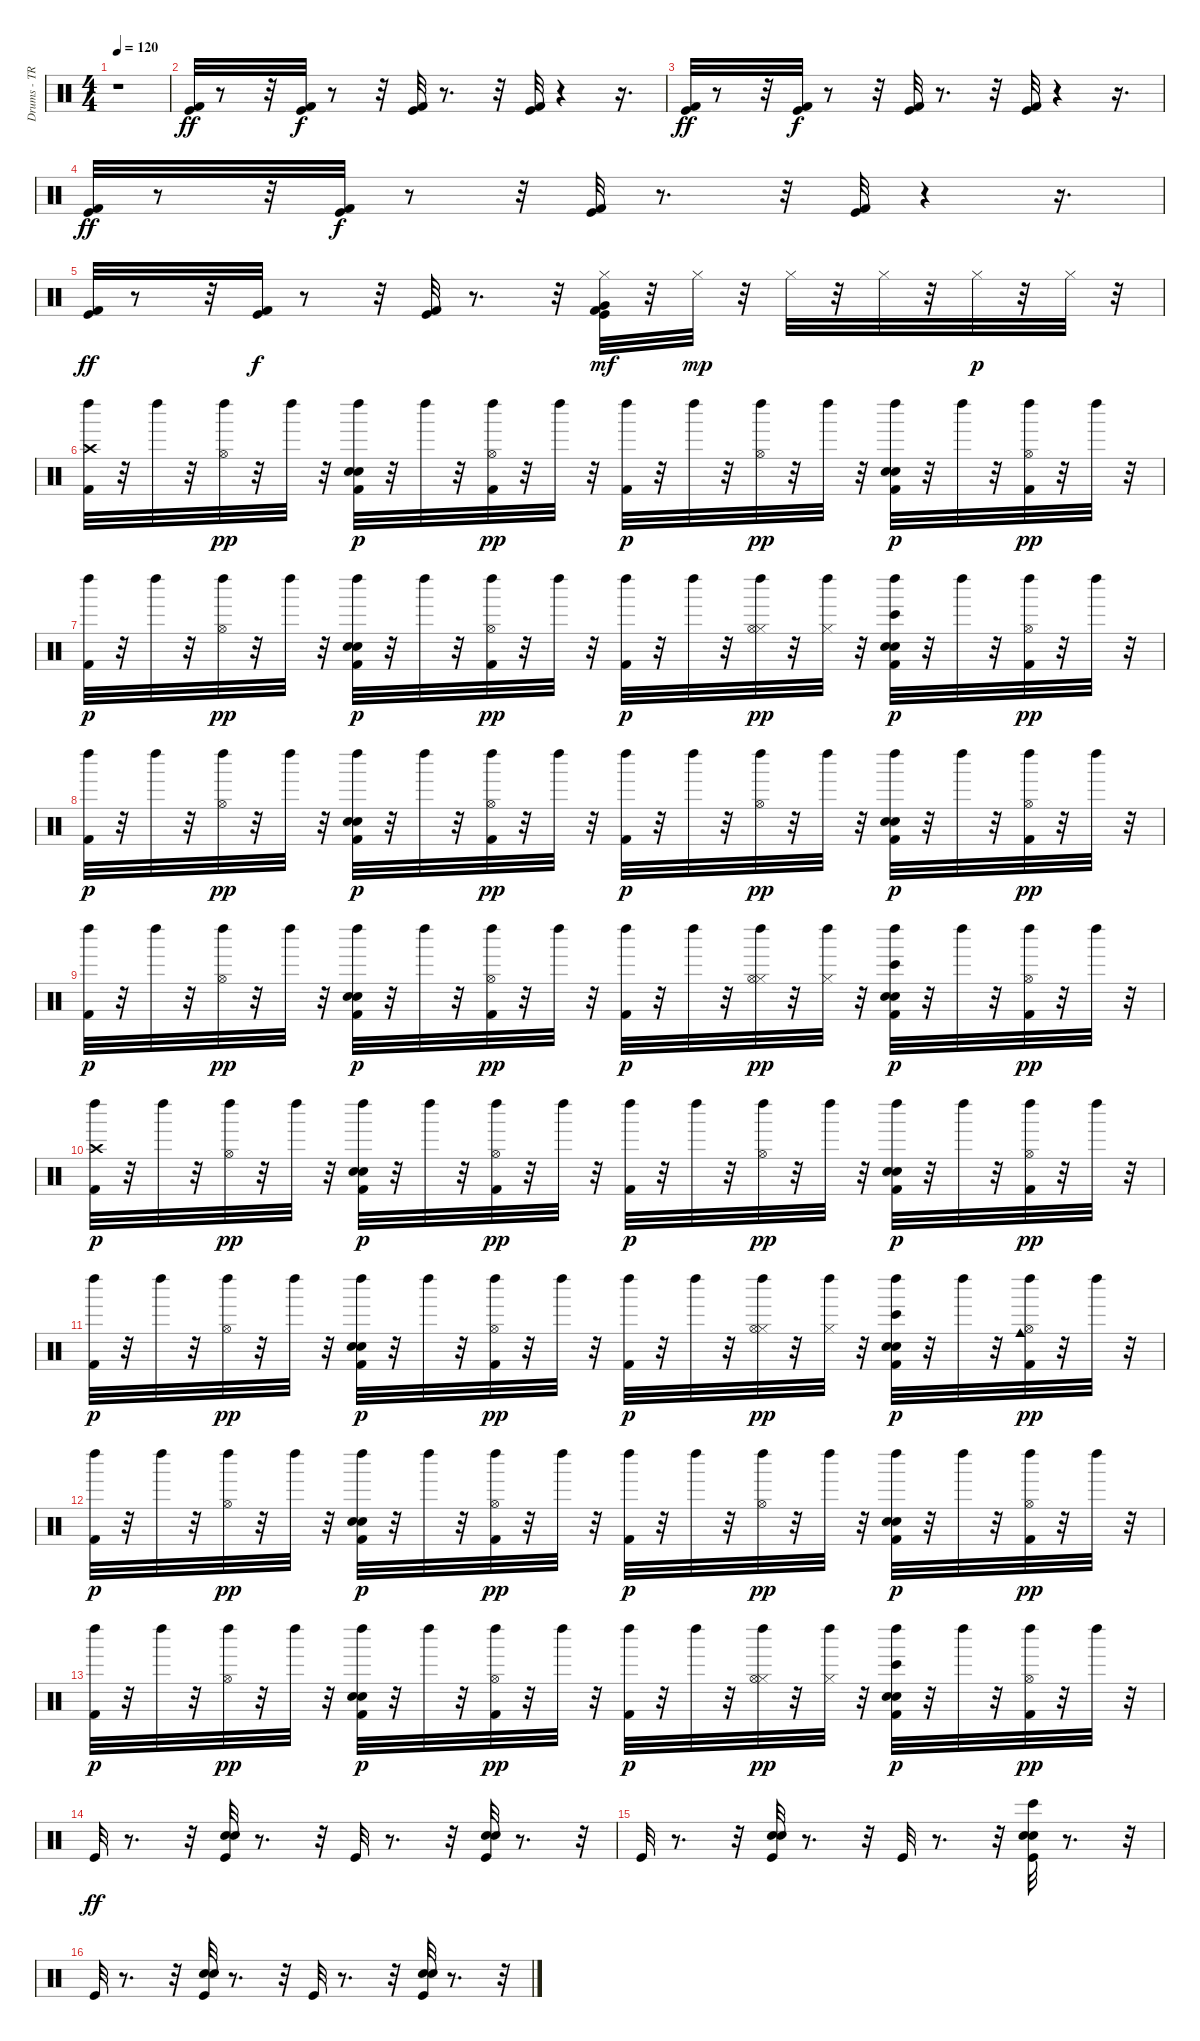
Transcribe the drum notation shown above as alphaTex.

\track ("Drums - TR" "Drums - TR") {instrument percussion}
\staff {score}
\articulation defaults
\ts (4 4)
\tempo 120
\clef neutral
\ks c
r.1{dy f} |
("Kick (hit)" "Kick (hit) 2").32{dy ff} r.8 r.32 ("Kick (hit)" "Kick (hit) 2").32{dy f} r.8 r.32 ("Kick (hit)" "Kick (hit) 2").32 r.8{d} r.32 ("Kick (hit)" "Kick (hit) 2").32 r.4 r.16{d} |
("Kick (hit)" "Kick (hit) 2").32{dy ff} r.8 r.32 ("Kick (hit)" "Kick (hit) 2").32{dy f} r.8 r.32 ("Kick (hit)" "Kick (hit) 2").32 r.8{d} r.32 ("Kick (hit)" "Kick (hit) 2").32 r.4 r.16{d} |
("Kick (hit)" "Kick (hit) 2").32{dy ff} r.8 r.32 ("Kick (hit)" "Kick (hit) 2").32{dy f} r.8 r.32 ("Kick (hit)" "Kick (hit) 2").32 r.8{d} r.32 ("Kick (hit)" "Kick (hit) 2").32 r.4 r.16{d} |
("Kick (hit)" "Kick (hit) 2").32{dy ff} r.8 r.32 ("Kick (hit)" "Kick (hit) 2").32{dy f} r.8 r.32 ("Kick (hit)" "Kick (hit) 2").32 r.8{d} r.32 ("Kick (hit)" "Kick (hit) 2" "Hi-Hat (closed)" "Very Low Tom (hit)").32{dy mf} r.32 "Hi-Hat (closed)".32{dy mp} r.32 "Hi-Hat (closed)".32 r.32 "Hi-Hat (closed)".32 r.32 "Hi-Hat (closed)".32{dy p} r.32 "Hi-Hat (closed)".32 r.32 |
("Kick (hit) 2" "Crash high (hit)" "Left Maraca (hit)").32 r.32 "Left Maraca (hit)".32 r.32 ("Hi-Hat (open)" "Left Maraca (hit)").32{dy pp} r.32 "Left Maraca (hit)".32 r.32 ("Kick (hit) 2" "Snare (hit) 2" "Hand Clap (hit)" "Left Maraca (hit)").32{dy p} r.32 "Left Maraca (hit)".32 r.32 ("Kick (hit) 2" "Hi-Hat (open)" "Left Maraca (hit)").32{dy pp} r.32 "Left Maraca (hit)".32 r.32 ("Kick (hit) 2" "Left Maraca (hit)").32{dy p} r.32 "Left Maraca (hit)".32 r.32 ("Hi-Hat (open)" "Left Maraca (hit)").32{dy pp} r.32 "Left Maraca (hit)".32 r.32 ("Kick (hit) 2" "Snare (hit) 2" "Hand Clap (hit)" "Left Maraca (hit)").32{dy p} r.32 "Left Maraca (hit)".32 r.32 ("Kick (hit) 2" "Hi-Hat (open)" "Left Maraca (hit)").32{dy pp} r.32 "Left Maraca (hit)".32 r.32 |
("Kick (hit) 2" "Left Maraca (hit)").32{dy p} r.32 "Left Maraca (hit)".32 r.32 ("Hi-Hat (open)" "Left Maraca (hit)").32{dy pp} r.32 "Left Maraca (hit)".32 r.32 ("Kick (hit) 2" "Snare (hit) 2" "Hand Clap (hit)" "Left Maraca (hit)").32{dy p} r.32 "Left Maraca (hit)".32 r.32 ("Kick (hit) 2" "Hi-Hat (open)" "Left Maraca (hit)").32{dy pp} r.32 "Left Maraca (hit)".32 r.32 ("Kick (hit) 2" "Left Maraca (hit)").32{dy p} r.32 "Left Maraca (hit)".32 r.32 ("Hi-Hat (closed)" "Hi-Hat (open)" "Left Maraca (hit)").32{dy pp} r.32 ("Hi-Hat (closed)" "Left Maraca (hit)").32 r.32 ("Kick (hit) 2" "Snare (hit) 2" "Hand Clap (hit)" "Left Maraca (hit)" "Bongo High (hit)").32{dy p} r.32 "Left Maraca (hit)".32 r.32 ("Kick (hit) 2" "Hi-Hat (open)" "Left Maraca (hit)").32{dy pp} r.32 "Left Maraca (hit)".32 r.32 |
("Kick (hit) 2" "Left Maraca (hit)").32{dy p} r.32 "Left Maraca (hit)".32 r.32 ("Hi-Hat (open)" "Left Maraca (hit)").32{dy pp} r.32 "Left Maraca (hit)".32 r.32 ("Kick (hit) 2" "Snare (hit) 2" "Hand Clap (hit)" "Left Maraca (hit)").32{dy p} r.32 "Left Maraca (hit)".32 r.32 ("Kick (hit) 2" "Hi-Hat (open)" "Left Maraca (hit)").32{dy pp} r.32 "Left Maraca (hit)".32 r.32 ("Kick (hit) 2" "Left Maraca (hit)").32{dy p} r.32 "Left Maraca (hit)".32 r.32 ("Hi-Hat (open)" "Left Maraca (hit)").32{dy pp} r.32 "Left Maraca (hit)".32 r.32 ("Kick (hit) 2" "Snare (hit) 2" "Hand Clap (hit)" "Left Maraca (hit)").32{dy p} r.32 "Left Maraca (hit)".32 r.32 ("Kick (hit) 2" "Hi-Hat (open)" "Left Maraca (hit)").32{dy pp} r.32 "Left Maraca (hit)".32 r.32 |
("Kick (hit) 2" "Left Maraca (hit)").32{dy p} r.32 "Left Maraca (hit)".32 r.32 ("Hi-Hat (open)" "Left Maraca (hit)").32{dy pp} r.32 "Left Maraca (hit)".32 r.32 ("Kick (hit) 2" "Snare (hit) 2" "Hand Clap (hit)" "Left Maraca (hit)").32{dy p} r.32 "Left Maraca (hit)".32 r.32 ("Kick (hit) 2" "Hi-Hat (open)" "Left Maraca (hit)").32{dy pp} r.32 "Left Maraca (hit)".32 r.32 ("Kick (hit) 2" "Left Maraca (hit)").32{dy p} r.32 "Left Maraca (hit)".32 r.32 ("Hi-Hat (closed)" "Hi-Hat (open)" "Left Maraca (hit)").32{dy pp} r.32 ("Hi-Hat (closed)" "Left Maraca (hit)").32 r.32 ("Kick (hit) 2" "Snare (hit) 2" "Hand Clap (hit)" "Left Maraca (hit)" "Bongo High (hit)").32{dy p} r.32 "Left Maraca (hit)".32 r.32 ("Kick (hit) 2" "Hi-Hat (open)" "Left Maraca (hit)").32{dy pp} r.32 "Left Maraca (hit)".32 r.32 |
("Kick (hit) 2" "Crash high (hit)" "Left Maraca (hit)").32{dy p} r.32 "Left Maraca (hit)".32 r.32 ("Hi-Hat (open)" "Left Maraca (hit)").32{dy pp} r.32 "Left Maraca (hit)".32 r.32 ("Kick (hit) 2" "Snare (hit) 2" "Hand Clap (hit)" "Left Maraca (hit)").32{dy p} r.32 "Left Maraca (hit)".32 r.32 ("Kick (hit) 2" "Hi-Hat (open)" "Left Maraca (hit)").32{dy pp} r.32 "Left Maraca (hit)".32 r.32 ("Kick (hit) 2" "Left Maraca (hit)").32{dy p} r.32 "Left Maraca (hit)".32 r.32 ("Hi-Hat (open)" "Left Maraca (hit)").32{dy pp} r.32 "Left Maraca (hit)".32 r.32 ("Kick (hit) 2" "Snare (hit) 2" "Hand Clap (hit)" "Left Maraca (hit)").32{dy p} r.32 "Left Maraca (hit)".32 r.32 ("Kick (hit) 2" "Hi-Hat (open)" "Left Maraca (hit)").32{dy pp} r.32 "Left Maraca (hit)".32 r.32 |
("Kick (hit) 2" "Left Maraca (hit)").32{dy p} r.32 "Left Maraca (hit)".32 r.32 ("Hi-Hat (open)" "Left Maraca (hit)").32{dy pp} r.32 "Left Maraca (hit)".32 r.32 ("Kick (hit) 2" "Snare (hit) 2" "Hand Clap (hit)" "Left Maraca (hit)").32{dy p} r.32 "Left Maraca (hit)".32 r.32 ("Kick (hit) 2" "Hi-Hat (open)" "Left Maraca (hit)").32{dy pp} r.32 "Left Maraca (hit)".32 r.32 ("Kick (hit) 2" "Left Maraca (hit)").32{dy p} r.32 "Left Maraca (hit)".32 r.32 ("Hi-Hat (closed)" "Hi-Hat (open)" "Left Maraca (hit)").32{dy pp} r.32 ("Hi-Hat (closed)" "Left Maraca (hit)").32 r.32 ("Kick (hit) 2" "Snare (hit) 2" "Hand Clap (hit)" "Left Maraca (hit)" "Bongo High (hit)").32{dy p} r.32 "Left Maraca (hit)".32 r.32 ("Kick (hit) 2" "Hi-Hat (open)" "Cowbell medium (hit)" "Left Maraca (hit)").32{dy pp} r.32 "Left Maraca (hit)".32 r.32 |
("Kick (hit) 2" "Left Maraca (hit)").32{dy p} r.32 "Left Maraca (hit)".32 r.32 ("Hi-Hat (open)" "Left Maraca (hit)").32{dy pp} r.32 "Left Maraca (hit)".32 r.32 ("Kick (hit) 2" "Snare (hit) 2" "Hand Clap (hit)" "Left Maraca (hit)").32{dy p} r.32 "Left Maraca (hit)".32 r.32 ("Kick (hit) 2" "Hi-Hat (open)" "Left Maraca (hit)").32{dy pp} r.32 "Left Maraca (hit)".32 r.32 ("Kick (hit) 2" "Left Maraca (hit)").32{dy p} r.32 "Left Maraca (hit)".32 r.32 ("Hi-Hat (open)" "Left Maraca (hit)").32{dy pp} r.32 "Left Maraca (hit)".32 r.32 ("Kick (hit) 2" "Snare (hit) 2" "Hand Clap (hit)" "Left Maraca (hit)").32{dy p} r.32 "Left Maraca (hit)".32 r.32 ("Kick (hit) 2" "Hi-Hat (open)" "Left Maraca (hit)").32{dy pp} r.32 "Left Maraca (hit)".32 r.32 |
("Kick (hit) 2" "Left Maraca (hit)").32{dy p} r.32 "Left Maraca (hit)".32 r.32 ("Hi-Hat (open)" "Left Maraca (hit)").32{dy pp} r.32 "Left Maraca (hit)".32 r.32 ("Kick (hit) 2" "Snare (hit) 2" "Hand Clap (hit)" "Left Maraca (hit)").32{dy p} r.32 "Left Maraca (hit)".32 r.32 ("Kick (hit) 2" "Hi-Hat (open)" "Left Maraca (hit)").32{dy pp} r.32 "Left Maraca (hit)".32 r.32 ("Kick (hit) 2" "Left Maraca (hit)").32{dy p} r.32 "Left Maraca (hit)".32 r.32 ("Hi-Hat (closed)" "Hi-Hat (open)" "Left Maraca (hit)").32{dy pp} r.32 ("Hi-Hat (closed)" "Left Maraca (hit)").32 r.32 ("Kick (hit) 2" "Snare (hit) 2" "Hand Clap (hit)" "Left Maraca (hit)" "Bongo High (hit)").32{dy p} r.32 "Left Maraca (hit)".32 r.32 ("Kick (hit) 2" "Hi-Hat (open)" "Left Maraca (hit)").32{dy pp} r.32 "Left Maraca (hit)".32 r.32 |
"Kick (hit)".32{dy ff} r.8{d} r.32 ("Kick (hit)" "Snare (hit) 2" "Hand Clap (hit)").32 r.8{d} r.32 "Kick (hit)".32 r.8{d} r.32 ("Kick (hit)" "Snare (hit) 2" "Hand Clap (hit)").32 r.8{d} r.32 |
"Kick (hit)".32 r.8{d} r.32 ("Kick (hit)" "Snare (hit) 2" "Hand Clap (hit)").32 r.8{d} r.32 "Kick (hit)".32 r.8{d} r.32 ("Kick (hit)" "Snare (hit) 2" "Hand Clap (hit)" "Bongo High (hit)").32 r.8{d} r.32 |
"Kick (hit)".32 r.8{d} r.32 ("Kick (hit)" "Snare (hit) 2" "Hand Clap (hit)").32 r.8{d} r.32 "Kick (hit)".32 r.8{d} r.32 ("Kick (hit)" "Snare (hit) 2" "Hand Clap (hit)").32 r.8{d} r.32
